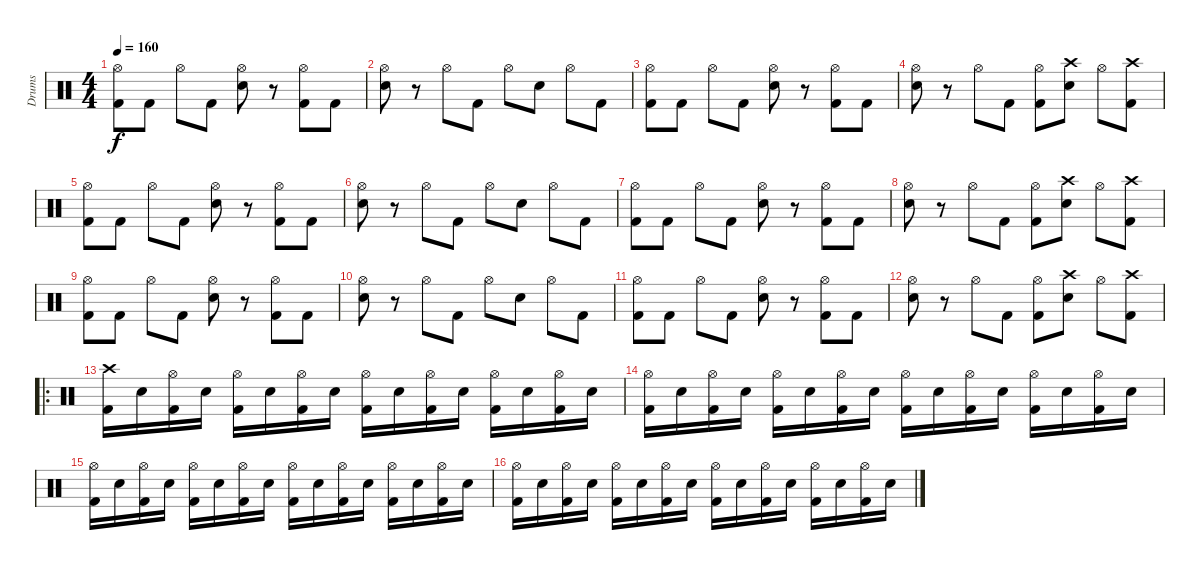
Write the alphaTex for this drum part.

\track ("Drums" "Drums") {instrument percussion}
\staff {score}
\articulation defaults
\ts (4 4)
\tempo 160
\clef neutral
\ks c
("Hi-Hat (open)" "Kick (hit) 2").8{dy f} "Kick (hit) 2".8 "Hi-Hat (open)".8 "Kick (hit) 2".8 ("Hi-Hat (open)" "Snare (hit) 2").8 r.8 ("Hi-Hat (open)" "Kick (hit) 2").8 "Kick (hit) 2".8 |
("Hi-Hat (open)" "Snare (hit) 2").8 r.8 "Hi-Hat (open)".8 "Kick (hit) 2".8 "Hi-Hat (open)".8 "Snare (hit) 2".8 "Hi-Hat (open)".8 "Kick (hit) 2".8 |
("Hi-Hat (open)" "Kick (hit) 2").8 "Kick (hit) 2".8 "Hi-Hat (open)".8 "Kick (hit) 2".8 ("Hi-Hat (open)" "Snare (hit) 2").8 r.8 ("Hi-Hat (open)" "Kick (hit) 2").8 "Kick (hit) 2".8 |
("Hi-Hat (open)" "Snare (hit) 2").8 r.8 "Hi-Hat (open)".8 "Kick (hit) 2".8 ("Hi-Hat (open)" "Kick (hit) 2").8 ("Crash high (hit)" "Snare (hit) 2").8 "Hi-Hat (open)".8 ("Crash high (hit)" "Kick (hit) 2").8 |
("Hi-Hat (open)" "Kick (hit) 2").8 "Kick (hit) 2".8 "Hi-Hat (open)".8 "Kick (hit) 2".8 ("Hi-Hat (open)" "Snare (hit) 2").8 r.8 ("Hi-Hat (open)" "Kick (hit) 2").8 "Kick (hit) 2".8 |
("Hi-Hat (open)" "Snare (hit) 2").8 r.8 "Hi-Hat (open)".8 "Kick (hit) 2".8 "Hi-Hat (open)".8 "Snare (hit) 2".8 "Hi-Hat (open)".8 "Kick (hit) 2".8 |
("Hi-Hat (open)" "Kick (hit) 2").8 "Kick (hit) 2".8 "Hi-Hat (open)".8 "Kick (hit) 2".8 ("Hi-Hat (open)" "Snare (hit) 2").8 r.8 ("Hi-Hat (open)" "Kick (hit) 2").8 "Kick (hit) 2".8 |
("Hi-Hat (open)" "Snare (hit) 2").8 r.8 "Hi-Hat (open)".8 "Kick (hit) 2".8 ("Hi-Hat (open)" "Kick (hit) 2").8 ("Crash high (hit)" "Snare (hit) 2").8 "Hi-Hat (open)".8 ("Crash high (hit)" "Kick (hit) 2").8 |
("Hi-Hat (open)" "Kick (hit) 2").8 "Kick (hit) 2".8 "Hi-Hat (open)".8 "Kick (hit) 2".8 ("Hi-Hat (open)" "Snare (hit) 2").8 r.8 ("Hi-Hat (open)" "Kick (hit) 2").8 "Kick (hit) 2".8 |
("Hi-Hat (open)" "Snare (hit) 2").8 r.8 "Hi-Hat (open)".8 "Kick (hit) 2".8 "Hi-Hat (open)".8 "Snare (hit) 2".8 "Hi-Hat (open)".8 "Kick (hit) 2".8 |
("Hi-Hat (open)" "Kick (hit) 2").8 "Kick (hit) 2".8 "Hi-Hat (open)".8 "Kick (hit) 2".8 ("Hi-Hat (open)" "Snare (hit) 2").8 r.8 ("Hi-Hat (open)" "Kick (hit) 2").8 "Kick (hit) 2".8 |
("Hi-Hat (open)" "Snare (hit) 2").8 r.8 "Hi-Hat (open)".8 "Kick (hit) 2".8 ("Hi-Hat (open)" "Kick (hit) 2").8 ("Crash high (hit)" "Snare (hit) 2").8 "Hi-Hat (open)".8 ("Crash high (hit)" "Kick (hit) 2").8 |
\ro
("Crash high (hit)" "Kick (hit) 2").16 "Snare (hit) 2".16 ("Hi-Hat (open)" "Kick (hit) 2").16 "Snare (hit) 2".16 ("Hi-Hat (open)" "Kick (hit) 2").16 "Snare (hit) 2".16 ("Hi-Hat (open)" "Kick (hit) 2").16 "Snare (hit) 2".16 ("Hi-Hat (open)" "Kick (hit) 2").16 "Snare (hit) 2".16 ("Hi-Hat (open)" "Kick (hit) 2").16 "Snare (hit) 2".16 ("Hi-Hat (open)" "Kick (hit) 2").16 "Snare (hit) 2".16 ("Hi-Hat (open)" "Kick (hit) 2").16 "Snare (hit) 2".16 |
("Hi-Hat (open)" "Kick (hit) 2").16 "Snare (hit) 2".16 ("Hi-Hat (open)" "Kick (hit) 2").16 "Snare (hit) 2".16 ("Hi-Hat (open)" "Kick (hit) 2").16 "Snare (hit) 2".16 ("Hi-Hat (open)" "Kick (hit) 2").16 "Snare (hit) 2".16 ("Hi-Hat (open)" "Kick (hit) 2").16 "Snare (hit) 2".16 ("Hi-Hat (open)" "Kick (hit) 2").16 "Snare (hit) 2".16 ("Hi-Hat (open)" "Kick (hit) 2").16 "Snare (hit) 2".16 ("Hi-Hat (open)" "Kick (hit) 2").16 "Snare (hit) 2".16 |
("Hi-Hat (open)" "Kick (hit) 2").16 "Snare (hit) 2".16 ("Hi-Hat (open)" "Kick (hit) 2").16 "Snare (hit) 2".16 ("Hi-Hat (open)" "Kick (hit) 2").16 "Snare (hit) 2".16 ("Hi-Hat (open)" "Kick (hit) 2").16 "Snare (hit) 2".16 ("Hi-Hat (open)" "Kick (hit) 2").16 "Snare (hit) 2".16 ("Hi-Hat (open)" "Kick (hit) 2").16 "Snare (hit) 2".16 ("Hi-Hat (open)" "Kick (hit) 2").16 "Snare (hit) 2".16 ("Hi-Hat (open)" "Kick (hit) 2").16 "Snare (hit) 2".16 |
("Hi-Hat (open)" "Kick (hit) 2").16 "Snare (hit) 2".16 ("Hi-Hat (open)" "Kick (hit) 2").16 "Snare (hit) 2".16 ("Hi-Hat (open)" "Kick (hit) 2").16 "Snare (hit) 2".16 ("Hi-Hat (open)" "Kick (hit) 2").16 "Snare (hit) 2".16 ("Hi-Hat (open)" "Kick (hit) 2").16 "Snare (hit) 2".16 ("Hi-Hat (open)" "Kick (hit) 2").16 "Snare (hit) 2".16 ("Hi-Hat (open)" "Kick (hit) 2").16 "Snare (hit) 2".16 ("Hi-Hat (open)" "Kick (hit) 2").16 "Snare (hit) 2".16
